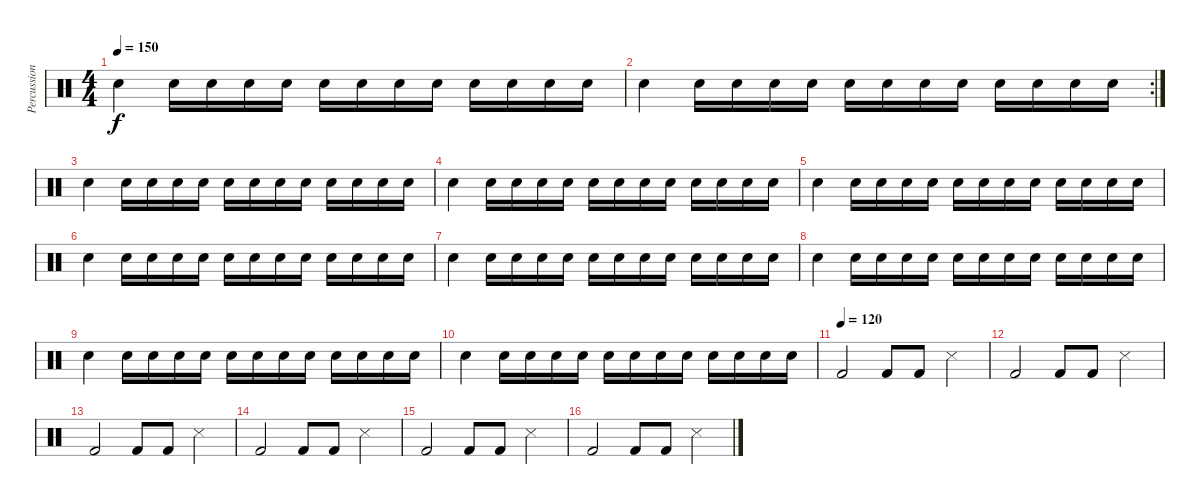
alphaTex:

\track ("Percussion" "Percussion") {instrument percussion}
\staff {score}
\articulation defaults
\ts (4 4)
\tempo 150
\clef neutral
\ks c "Snare (hit) 2".4{dy f} "Snare (hit) 2".16 "Snare (hit) 2".16 "Snare (hit) 2".16 "Snare (hit) 2".16 "Snare (hit) 2".16 "Snare (hit) 2".16 "Snare (hit) 2".16 "Snare (hit) 2".16 "Snare (hit) 2".16 "Snare (hit) 2".16 "Snare (hit) 2".16 "Snare (hit) 2".16
|
\rc 2 "Snare (hit) 2".4 "Snare (hit) 2".16 "Snare (hit) 2".16 "Snare (hit) 2".16 "Snare (hit) 2".16 "Snare (hit) 2".16 "Snare (hit) 2".16 "Snare (hit) 2".16 "Snare (hit) 2".16 "Snare (hit) 2".16 "Snare (hit) 2".16 "Snare (hit) 2".16 "Snare (hit) 2".16
|
"Snare (hit) 2".4 "Snare (hit) 2".16 "Snare (hit) 2".16 "Snare (hit) 2".16 "Snare (hit) 2".16 "Snare (hit) 2".16 "Snare (hit) 2".16 "Snare (hit) 2".16 "Snare (hit) 2".16 "Snare (hit) 2".16 "Snare (hit) 2".16 "Snare (hit) 2".16 "Snare (hit) 2".16 |
"Snare (hit) 2".4 "Snare (hit) 2".16 "Snare (hit) 2".16 "Snare (hit) 2".16 "Snare (hit) 2".16 "Snare (hit) 2".16 "Snare (hit) 2".16 "Snare (hit) 2".16 "Snare (hit) 2".16 "Snare (hit) 2".16 "Snare (hit) 2".16 "Snare (hit) 2".16 "Snare (hit) 2".16 |
"Snare (hit) 2".4 "Snare (hit) 2".16 "Snare (hit) 2".16 "Snare (hit) 2".16 "Snare (hit) 2".16 "Snare (hit) 2".16 "Snare (hit) 2".16 "Snare (hit) 2".16 "Snare (hit) 2".16 "Snare (hit) 2".16 "Snare (hit) 2".16 "Snare (hit) 2".16 "Snare (hit) 2".16 |
"Snare (hit) 2".4 "Snare (hit) 2".16 "Snare (hit) 2".16 "Snare (hit) 2".16 "Snare (hit) 2".16 "Snare (hit) 2".16 "Snare (hit) 2".16 "Snare (hit) 2".16 "Snare (hit) 2".16 "Snare (hit) 2".16 "Snare (hit) 2".16 "Snare (hit) 2".16 "Snare (hit) 2".16 |
"Snare (hit) 2".4 "Snare (hit) 2".16 "Snare (hit) 2".16 "Snare (hit) 2".16 "Snare (hit) 2".16 "Snare (hit) 2".16 "Snare (hit) 2".16 "Snare (hit) 2".16 "Snare (hit) 2".16 "Snare (hit) 2".16 "Snare (hit) 2".16 "Snare (hit) 2".16 "Snare (hit) 2".16 |
"Snare (hit) 2".4 "Snare (hit) 2".16 "Snare (hit) 2".16 "Snare (hit) 2".16 "Snare (hit) 2".16 "Snare (hit) 2".16 "Snare (hit) 2".16 "Snare (hit) 2".16 "Snare (hit) 2".16 "Snare (hit) 2".16 "Snare (hit) 2".16 "Snare (hit) 2".16 "Snare (hit) 2".16 |
"Snare (hit) 2".4 "Snare (hit) 2".16 "Snare (hit) 2".16 "Snare (hit) 2".16 "Snare (hit) 2".16 "Snare (hit) 2".16 "Snare (hit) 2".16 "Snare (hit) 2".16 "Snare (hit) 2".16 "Snare (hit) 2".16 "Snare (hit) 2".16 "Snare (hit) 2".16 "Snare (hit) 2".16 |
"Snare (hit) 2".4 "Snare (hit) 2".16 "Snare (hit) 2".16 "Snare (hit) 2".16 "Snare (hit) 2".16 "Snare (hit) 2".16 "Snare (hit) 2".16 "Snare (hit) 2".16 "Snare (hit) 2".16 "Snare (hit) 2".16 "Snare (hit) 2".16 "Snare (hit) 2".16 "Snare (hit) 2".16 |
\tempo (120)
"Kick (hit) 2".2 "Kick (hit) 2".8 "Kick (hit) 2".8 "Snare (side stick) 3".4 |
"Kick (hit) 2".2 "Kick (hit) 2".8 "Kick (hit) 2".8 "Snare (side stick) 3".4 |
"Kick (hit) 2".2 "Kick (hit) 2".8 "Kick (hit) 2".8 "Snare (side stick) 3".4 |
"Kick (hit) 2".2 "Kick (hit) 2".8 "Kick (hit) 2".8 "Snare (side stick) 3".4 |
"Kick (hit) 2".2 "Kick (hit) 2".8 "Kick (hit) 2".8 "Snare (side stick) 3".4 |
"Kick (hit) 2".2 "Kick (hit) 2".8 "Kick (hit) 2".8 "Snare (side stick) 3".4
